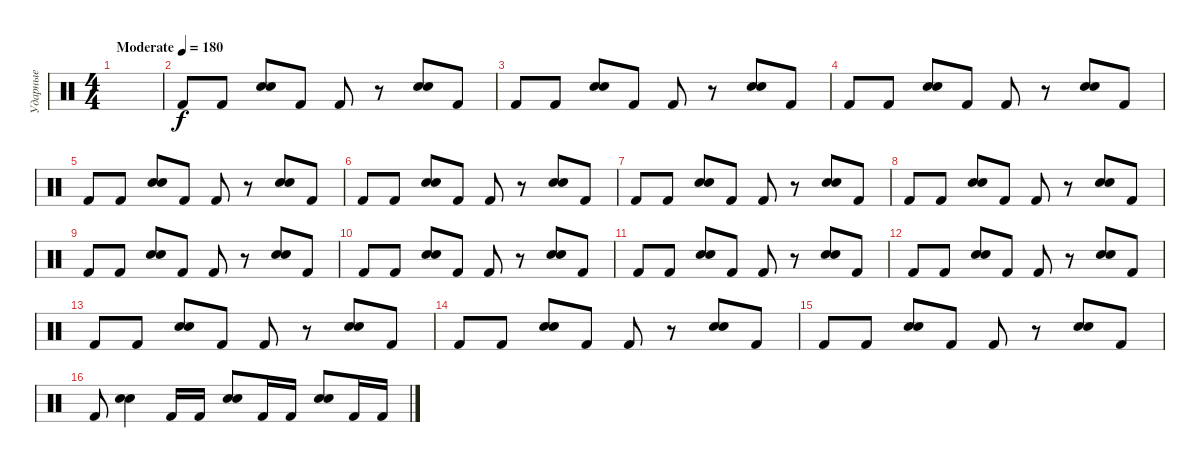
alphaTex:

\track ("Ударные" "Ударные") {instrument percussion}
\staff {score}
\articulation defaults
\ts (4 4)
\tempo (180 "Moderate")
\clef neutral
\ks c
|
"Kick (hit) 2".8 "Kick (hit) 2".8 ("Electric Snare (hit)" "Snare (hit) 2").8 "Kick (hit) 2".8 "Kick (hit) 2".8 r.8 ("Electric Snare (hit)" "Snare (hit) 2").8 "Kick (hit) 2".8 |
"Kick (hit) 2".8 "Kick (hit) 2".8 ("Electric Snare (hit)" "Snare (hit) 2").8 "Kick (hit) 2".8 "Kick (hit) 2".8 r.8 ("Electric Snare (hit)" "Snare (hit) 2").8 "Kick (hit) 2".8 |
"Kick (hit) 2".8 "Kick (hit) 2".8 ("Electric Snare (hit)" "Snare (hit) 2").8 "Kick (hit) 2".8 "Kick (hit) 2".8 r.8 ("Electric Snare (hit)" "Snare (hit) 2").8 "Kick (hit) 2".8 |
"Kick (hit) 2".8 "Kick (hit) 2".8 ("Electric Snare (hit)" "Snare (hit) 2").8 "Kick (hit) 2".8 "Kick (hit) 2".8 r.8 ("Electric Snare (hit)" "Snare (hit) 2").8 "Kick (hit) 2".8 |
"Kick (hit) 2".8 "Kick (hit) 2".8 ("Electric Snare (hit)" "Snare (hit) 2").8 "Kick (hit) 2".8 "Kick (hit) 2".8 r.8 ("Electric Snare (hit)" "Snare (hit) 2").8 "Kick (hit) 2".8 |
"Kick (hit) 2".8 "Kick (hit) 2".8 ("Electric Snare (hit)" "Snare (hit) 2").8 "Kick (hit) 2".8 "Kick (hit) 2".8 r.8 ("Electric Snare (hit)" "Snare (hit) 2").8 "Kick (hit) 2".8 |
"Kick (hit) 2".8 "Kick (hit) 2".8 ("Electric Snare (hit)" "Snare (hit) 2").8 "Kick (hit) 2".8 "Kick (hit) 2".8 r.8 ("Electric Snare (hit)" "Snare (hit) 2").8 "Kick (hit) 2".8 |
"Kick (hit) 2".8 "Kick (hit) 2".8 ("Electric Snare (hit)" "Snare (hit) 2").8 "Kick (hit) 2".8 "Kick (hit) 2".8 r.8 ("Electric Snare (hit)" "Snare (hit) 2").8 "Kick (hit) 2".8 |
"Kick (hit) 2".8 "Kick (hit) 2".8 ("Electric Snare (hit)" "Snare (hit) 2").8 "Kick (hit) 2".8 "Kick (hit) 2".8 r.8 ("Electric Snare (hit)" "Snare (hit) 2").8 "Kick (hit) 2".8 |
"Kick (hit) 2".8 "Kick (hit) 2".8 ("Electric Snare (hit)" "Snare (hit) 2").8 "Kick (hit) 2".8 "Kick (hit) 2".8 r.8 ("Electric Snare (hit)" "Snare (hit) 2").8 "Kick (hit) 2".8 |
"Kick (hit) 2".8 "Kick (hit) 2".8 ("Electric Snare (hit)" "Snare (hit) 2").8 "Kick (hit) 2".8 "Kick (hit) 2".8 r.8 ("Electric Snare (hit)" "Snare (hit) 2").8 "Kick (hit) 2".8 |
"Kick (hit) 2".8 "Kick (hit) 2".8 ("Electric Snare (hit)" "Snare (hit) 2").8 "Kick (hit) 2".8 "Kick (hit) 2".8 r.8 ("Electric Snare (hit)" "Snare (hit) 2").8 "Kick (hit) 2".8 |
"Kick (hit) 2".8 "Kick (hit) 2".8 ("Electric Snare (hit)" "Snare (hit) 2").8 "Kick (hit) 2".8 "Kick (hit) 2".8 r.8 ("Electric Snare (hit)" "Snare (hit) 2").8 "Kick (hit) 2".8 |
"Kick (hit) 2".8 "Kick (hit) 2".8 ("Electric Snare (hit)" "Snare (hit) 2").8 "Kick (hit) 2".8 "Kick (hit) 2".8 r.8 ("Electric Snare (hit)" "Snare (hit) 2").8 "Kick (hit) 2".8 |
"Kick (hit) 2".8 ("Snare (hit) 2" "Electric Snare (hit)").4 "Kick (hit) 2".16 "Kick (hit) 2".16 ("Snare (hit) 2" "Electric Snare (hit)").8 "Kick (hit) 2".16 "Kick (hit) 2".16 ("Snare (hit) 2" "Electric Snare (hit)").8 "Kick (hit) 2".16 "Kick (hit) 2".16
